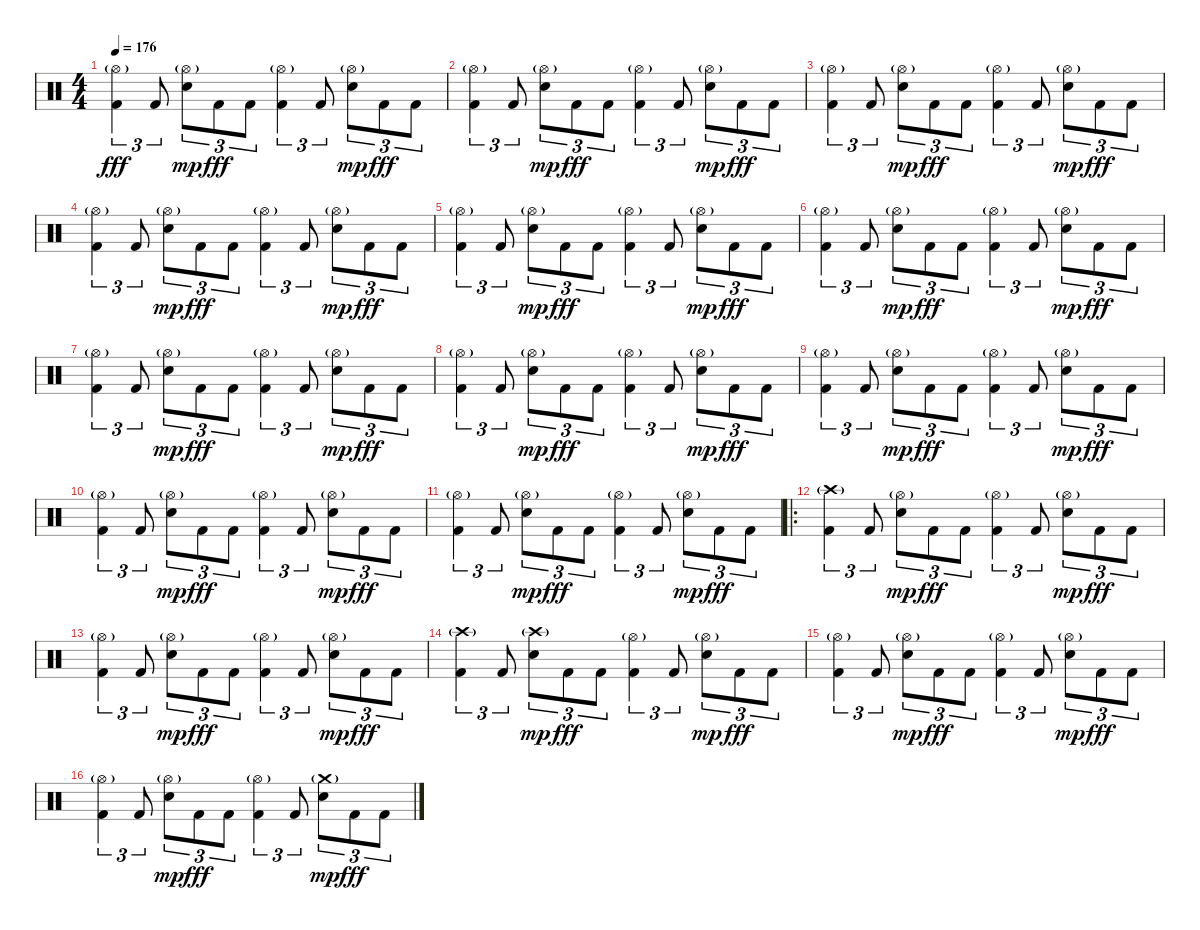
\track "" {instrument percussion}
\staff {score}
\articulation defaults
\ts (4 4)
\tempo 176
\clef neutral
\ks c
("Hi-Hat (open)"{g} "Kick (hit) 2").4{tu (3 2) dy fff} "Kick (hit) 2".8{tu (3 2)} ("Hi-Hat (open)"{g} "Snare (hit) 2").8{tu (3 2) dy mp} "Kick (hit) 2".8{tu (3 2) dy fff} "Kick (hit) 2".8{tu (3 2)} ("Hi-Hat (open)"{g} "Kick (hit) 2").4{tu (3 2)} "Kick (hit) 2".8{tu (3 2)} ("Hi-Hat (open)"{g} "Snare (hit) 2").8{tu (3 2) dy mp} "Kick (hit) 2".8{tu (3 2) dy fff} "Kick (hit) 2".8{tu (3 2)} |
("Hi-Hat (open)"{g} "Kick (hit) 2").4{tu (3 2)} "Kick (hit) 2".8{tu (3 2)} ("Hi-Hat (open)"{g} "Snare (hit) 2").8{tu (3 2) dy mp} "Kick (hit) 2".8{tu (3 2) dy fff} "Kick (hit) 2".8{tu (3 2)} ("Hi-Hat (open)"{g} "Kick (hit) 2").4{tu (3 2)} "Kick (hit) 2".8{tu (3 2)} ("Hi-Hat (open)"{g} "Snare (hit) 2").8{tu (3 2) dy mp} "Kick (hit) 2".8{tu (3 2) dy fff} "Kick (hit) 2".8{tu (3 2)} |
("Hi-Hat (open)"{g} "Kick (hit) 2").4{tu (3 2)} "Kick (hit) 2".8{tu (3 2)} ("Hi-Hat (open)"{g} "Snare (hit) 2").8{tu (3 2) dy mp} "Kick (hit) 2".8{tu (3 2) dy fff} "Kick (hit) 2".8{tu (3 2)} ("Hi-Hat (open)"{g} "Kick (hit) 2").4{tu (3 2)} "Kick (hit) 2".8{tu (3 2)} ("Hi-Hat (open)"{g} "Snare (hit) 2").8{tu (3 2) dy mp} "Kick (hit) 2".8{tu (3 2) dy fff} "Kick (hit) 2".8{tu (3 2)} |
("Hi-Hat (open)"{g} "Kick (hit) 2").4{tu (3 2)} "Kick (hit) 2".8{tu (3 2)} ("Hi-Hat (open)"{g} "Snare (hit) 2").8{tu (3 2) dy mp} "Kick (hit) 2".8{tu (3 2) dy fff} "Kick (hit) 2".8{tu (3 2)} ("Hi-Hat (open)"{g} "Kick (hit) 2").4{tu (3 2)} "Kick (hit) 2".8{tu (3 2)} ("Hi-Hat (open)"{g} "Snare (hit) 2").8{tu (3 2) dy mp} "Kick (hit) 2".8{tu (3 2) dy fff} "Kick (hit) 2".8{tu (3 2)} |
("Hi-Hat (open)"{g} "Kick (hit) 2").4{tu (3 2)} "Kick (hit) 2".8{tu (3 2)} ("Hi-Hat (open)"{g} "Snare (hit) 2").8{tu (3 2) dy mp} "Kick (hit) 2".8{tu (3 2) dy fff} "Kick (hit) 2".8{tu (3 2)} ("Hi-Hat (open)"{g} "Kick (hit) 2").4{tu (3 2)} "Kick (hit) 2".8{tu (3 2)} ("Hi-Hat (open)"{g} "Snare (hit) 2").8{tu (3 2) dy mp} "Kick (hit) 2".8{tu (3 2) dy fff} "Kick (hit) 2".8{tu (3 2)} |
("Hi-Hat (open)"{g} "Kick (hit) 2").4{tu (3 2)} "Kick (hit) 2".8{tu (3 2)} ("Hi-Hat (open)"{g} "Snare (hit) 2").8{tu (3 2) dy mp} "Kick (hit) 2".8{tu (3 2) dy fff} "Kick (hit) 2".8{tu (3 2)} ("Hi-Hat (open)"{g} "Kick (hit) 2").4{tu (3 2)} "Kick (hit) 2".8{tu (3 2)} ("Hi-Hat (open)"{g} "Snare (hit) 2").8{tu (3 2) dy mp} "Kick (hit) 2".8{tu (3 2) dy fff} "Kick (hit) 2".8{tu (3 2)} |
("Hi-Hat (open)"{g} "Kick (hit) 2").4{tu (3 2)} "Kick (hit) 2".8{tu (3 2)} ("Hi-Hat (open)"{g} "Snare (hit) 2").8{tu (3 2) dy mp} "Kick (hit) 2".8{tu (3 2) dy fff} "Kick (hit) 2".8{tu (3 2)} ("Hi-Hat (open)"{g} "Kick (hit) 2").4{tu (3 2)} "Kick (hit) 2".8{tu (3 2)} ("Hi-Hat (open)"{g} "Snare (hit) 2").8{tu (3 2) dy mp} "Kick (hit) 2".8{tu (3 2) dy fff} "Kick (hit) 2".8{tu (3 2)} |
("Hi-Hat (open)"{g} "Kick (hit) 2").4{tu (3 2)} "Kick (hit) 2".8{tu (3 2)} ("Hi-Hat (open)"{g} "Snare (hit) 2").8{tu (3 2) dy mp} "Kick (hit) 2".8{tu (3 2) dy fff} "Kick (hit) 2".8{tu (3 2)} ("Hi-Hat (open)"{g} "Kick (hit) 2").4{tu (3 2)} "Kick (hit) 2".8{tu (3 2)} ("Hi-Hat (open)"{g} "Snare (hit) 2").8{tu (3 2) dy mp} "Kick (hit) 2".8{tu (3 2) dy fff} "Kick (hit) 2".8{tu (3 2)} |
("Hi-Hat (open)"{g} "Kick (hit) 2").4{tu (3 2)} "Kick (hit) 2".8{tu (3 2)} ("Hi-Hat (open)"{g} "Snare (hit) 2").8{tu (3 2) dy mp} "Kick (hit) 2".8{tu (3 2) dy fff} "Kick (hit) 2".8{tu (3 2)} ("Hi-Hat (open)"{g} "Kick (hit) 2").4{tu (3 2)} "Kick (hit) 2".8{tu (3 2)} ("Hi-Hat (open)"{g} "Snare (hit) 2").8{tu (3 2) dy mp} "Kick (hit) 2".8{tu (3 2) dy fff} "Kick (hit) 2".8{tu (3 2)} |
("Hi-Hat (open)"{g} "Kick (hit) 2").4{tu (3 2)} "Kick (hit) 2".8{tu (3 2)} ("Hi-Hat (open)"{g} "Snare (hit) 2").8{tu (3 2) dy mp} "Kick (hit) 2".8{tu (3 2) dy fff} "Kick (hit) 2".8{tu (3 2)} ("Hi-Hat (open)"{g} "Kick (hit) 2").4{tu (3 2)} "Kick (hit) 2".8{tu (3 2)} ("Hi-Hat (open)"{g} "Snare (hit) 2").8{tu (3 2) dy mp} "Kick (hit) 2".8{tu (3 2) dy fff} "Kick (hit) 2".8{tu (3 2)} |
("Hi-Hat (open)"{g} "Kick (hit) 2").4{tu (3 2)} "Kick (hit) 2".8{tu (3 2)} ("Hi-Hat (open)"{g} "Snare (hit) 2").8{tu (3 2) dy mp} "Kick (hit) 2".8{tu (3 2) dy fff} "Kick (hit) 2".8{tu (3 2)} ("Hi-Hat (open)"{g} "Kick (hit) 2").4{tu (3 2)} "Kick (hit) 2".8{tu (3 2)} ("Hi-Hat (open)"{g} "Snare (hit) 2").8{tu (3 2) dy mp} "Kick (hit) 2".8{tu (3 2) dy fff} "Kick (hit) 2".8{tu (3 2)} |
\ro
("Crash high (hit)"{g} "Kick (hit) 2").4{tu (3 2)} "Kick (hit) 2".8{tu (3 2)} ("Hi-Hat (open)"{g} "Snare (hit) 2").8{tu (3 2) dy mp} "Kick (hit) 2".8{tu (3 2) dy fff} "Kick (hit) 2".8{tu (3 2)} ("Hi-Hat (open)"{g} "Kick (hit) 2").4{tu (3 2)} "Kick (hit) 2".8{tu (3 2)} ("Hi-Hat (open)"{g} "Snare (hit) 2").8{tu (3 2) dy mp} "Kick (hit) 2".8{tu (3 2) dy fff} "Kick (hit) 2".8{tu (3 2)} |
("Hi-Hat (open)"{g} "Kick (hit) 2").4{tu (3 2)} "Kick (hit) 2".8{tu (3 2)} ("Hi-Hat (open)"{g} "Snare (hit) 2").8{tu (3 2) dy mp} "Kick (hit) 2".8{tu (3 2) dy fff} "Kick (hit) 2".8{tu (3 2)} ("Hi-Hat (open)"{g} "Kick (hit) 2").4{tu (3 2)} "Kick (hit) 2".8{tu (3 2)} ("Hi-Hat (open)"{g} "Snare (hit) 2").8{tu (3 2) dy mp} "Kick (hit) 2".8{tu (3 2) dy fff} "Kick (hit) 2".8{tu (3 2)} |
("Crash high (hit)"{g} "Kick (hit) 2").4{tu (3 2)} "Kick (hit) 2".8{tu (3 2)} ("Crash high (hit)"{g} "Snare (hit) 2").8{tu (3 2) dy mp} "Kick (hit) 2".8{tu (3 2) dy fff} "Kick (hit) 2".8{tu (3 2)} ("Hi-Hat (open)"{g} "Kick (hit) 2").4{tu (3 2)} "Kick (hit) 2".8{tu (3 2)} ("Hi-Hat (open)"{g} "Snare (hit) 2").8{tu (3 2) dy mp} "Kick (hit) 2".8{tu (3 2) dy fff} "Kick (hit) 2".8{tu (3 2)} |
("Hi-Hat (open)"{g} "Kick (hit) 2").4{tu (3 2)} "Kick (hit) 2".8{tu (3 2)} ("Hi-Hat (open)"{g} "Snare (hit) 2").8{tu (3 2) dy mp} "Kick (hit) 2".8{tu (3 2) dy fff} "Kick (hit) 2".8{tu (3 2)} ("Hi-Hat (open)"{g} "Kick (hit) 2").4{tu (3 2)} "Kick (hit) 2".8{tu (3 2)} ("Hi-Hat (open)"{g} "Snare (hit) 2").8{tu (3 2) dy mp} "Kick (hit) 2".8{tu (3 2) dy fff} "Kick (hit) 2".8{tu (3 2)} |
("Hi-Hat (open)"{g} "Kick (hit) 2").4{tu (3 2)} "Kick (hit) 2".8{tu (3 2)} ("Hi-Hat (open)"{g} "Snare (hit) 2").8{tu (3 2) dy mp} "Kick (hit) 2".8{tu (3 2) dy fff} "Kick (hit) 2".8{tu (3 2)} ("Hi-Hat (open)"{g} "Kick (hit) 2").4{tu (3 2)} "Kick (hit) 2".8{tu (3 2)} ("Crash medium (hit)"{g} "Snare (hit) 2").8{tu (3 2) dy mp} "Kick (hit) 2".8{tu (3 2) dy fff} "Kick (hit) 2".8{tu (3 2)}
